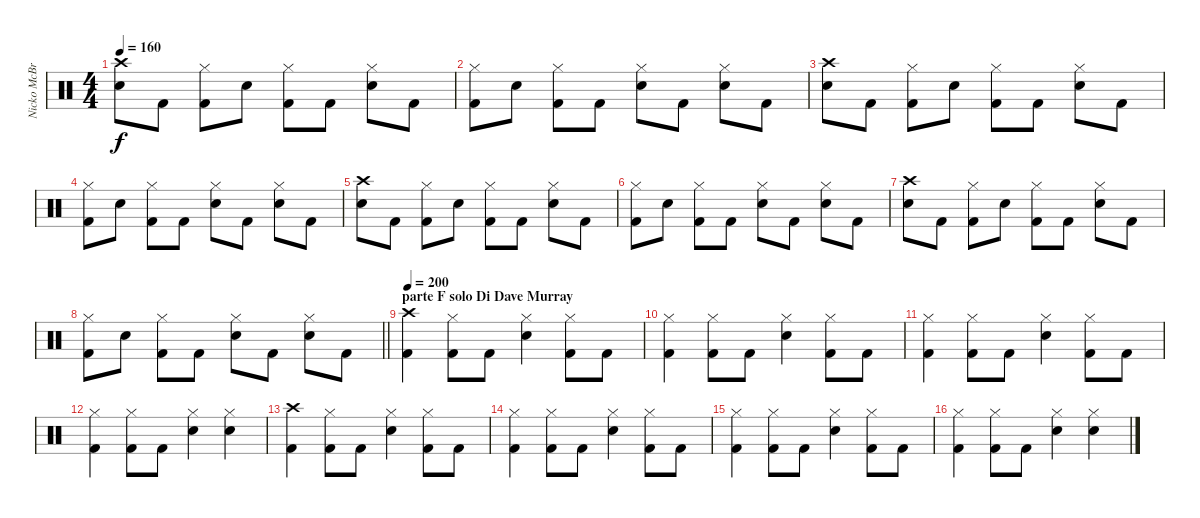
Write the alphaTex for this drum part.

\track ("Nicko McBrain" "Nicko McBr") {instrument percussion}
\staff {score}
\articulation defaults
\ts (4 4)
\tempo 160
\clef neutral
\ks c
("Crash high (hit)" "Snare (hit) 2").8{dy f} "Kick (hit) 2".8 ("Hi-Hat (closed)" "Kick (hit) 2").8 "Snare (hit) 2".8 ("Hi-Hat (closed)" "Kick (hit) 2").8 "Kick (hit) 2".8 ("Hi-Hat (closed)" "Snare (hit) 2").8 "Kick (hit) 2".8 |
("Hi-Hat (closed)" "Kick (hit) 2").8 "Snare (hit) 2".8 ("Hi-Hat (closed)" "Kick (hit) 2").8 "Kick (hit) 2".8 ("Hi-Hat (closed)" "Snare (hit) 2").8 "Kick (hit) 2".8 ("Hi-Hat (closed)" "Snare (hit) 2").8 "Kick (hit) 2".8 |
("Crash high (hit)" "Snare (hit) 2").8 "Kick (hit) 2".8 ("Hi-Hat (closed)" "Kick (hit) 2").8 "Snare (hit) 2".8 ("Hi-Hat (closed)" "Kick (hit) 2").8 "Kick (hit) 2".8 ("Hi-Hat (closed)" "Snare (hit) 2").8 "Kick (hit) 2".8 |
("Hi-Hat (closed)" "Kick (hit) 2").8 "Snare (hit) 2".8 ("Hi-Hat (closed)" "Kick (hit) 2").8 "Kick (hit) 2".8 ("Hi-Hat (closed)" "Snare (hit) 2").8 "Kick (hit) 2".8 ("Hi-Hat (closed)" "Snare (hit) 2").8 "Kick (hit) 2".8 |
("Crash high (hit)" "Snare (hit) 2").8 "Kick (hit) 2".8 ("Hi-Hat (closed)" "Kick (hit) 2").8 "Snare (hit) 2".8 ("Hi-Hat (closed)" "Kick (hit) 2").8 "Kick (hit) 2".8 ("Hi-Hat (closed)" "Snare (hit) 2").8 "Kick (hit) 2".8 |
("Hi-Hat (closed)" "Kick (hit) 2").8 "Snare (hit) 2".8 ("Hi-Hat (closed)" "Kick (hit) 2").8 "Kick (hit) 2".8 ("Hi-Hat (closed)" "Snare (hit) 2").8 "Kick (hit) 2".8 ("Hi-Hat (closed)" "Snare (hit) 2").8 "Kick (hit) 2".8 |
("Crash high (hit)" "Snare (hit) 2").8 "Kick (hit) 2".8 ("Hi-Hat (closed)" "Kick (hit) 2").8 "Snare (hit) 2".8 ("Hi-Hat (closed)" "Kick (hit) 2").8 "Kick (hit) 2".8 ("Hi-Hat (closed)" "Snare (hit) 2").8 "Kick (hit) 2".8 |
\barLineRight lightlight
("Hi-Hat (closed)" "Kick (hit) 2").8 "Snare (hit) 2".8 ("Hi-Hat (closed)" "Kick (hit) 2").8 "Kick (hit) 2".8 ("Hi-Hat (closed)" "Snare (hit) 2").8 "Kick (hit) 2".8 ("Hi-Hat (closed)" "Snare (hit) 2").8 "Kick (hit) 2".8 |
\section ("" "parte F solo Di Dave Murray")
\tempo 200
("Crash high (hit)" "Kick (hit) 2").4 ("Hi-Hat (closed)" "Kick (hit) 2").8 "Kick (hit) 2".8 ("Hi-Hat (closed)" "Snare (hit) 2").4 ("Hi-Hat (closed)" "Kick (hit) 2").8 "Kick (hit) 2".8 |
("Hi-Hat (closed)" "Kick (hit) 2").4 ("Hi-Hat (closed)" "Kick (hit) 2").8 "Kick (hit) 2".8 ("Hi-Hat (closed)" "Snare (hit) 2").4 ("Hi-Hat (closed)" "Kick (hit) 2").8 "Kick (hit) 2".8 |
("Hi-Hat (closed)" "Kick (hit) 2").4 ("Hi-Hat (closed)" "Kick (hit) 2").8 "Kick (hit) 2".8 ("Hi-Hat (closed)" "Snare (hit) 2").4 ("Hi-Hat (closed)" "Kick (hit) 2").8 "Kick (hit) 2".8 |
("Hi-Hat (closed)" "Kick (hit) 2").4 ("Hi-Hat (closed)" "Kick (hit) 2").8 "Kick (hit) 2".8 ("Hi-Hat (closed)" "Snare (hit) 2").4 ("Hi-Hat (closed)" "Snare (hit) 2").4 |
("Crash high (hit)" "Kick (hit) 2").4 ("Hi-Hat (closed)" "Kick (hit) 2").8 "Kick (hit) 2".8 ("Hi-Hat (closed)" "Snare (hit) 2").4 ("Hi-Hat (closed)" "Kick (hit) 2").8 "Kick (hit) 2".8 |
("Hi-Hat (closed)" "Kick (hit) 2").4 ("Hi-Hat (closed)" "Kick (hit) 2").8 "Kick (hit) 2".8 ("Hi-Hat (closed)" "Snare (hit) 2").4 ("Hi-Hat (closed)" "Kick (hit) 2").8 "Kick (hit) 2".8 |
("Hi-Hat (closed)" "Kick (hit) 2").4 ("Hi-Hat (closed)" "Kick (hit) 2").8 "Kick (hit) 2".8 ("Hi-Hat (closed)" "Snare (hit) 2").4 ("Hi-Hat (closed)" "Kick (hit) 2").8 "Kick (hit) 2".8 |
("Hi-Hat (closed)" "Kick (hit) 2").4 ("Hi-Hat (closed)" "Kick (hit) 2").8 "Kick (hit) 2".8 ("Hi-Hat (closed)" "Snare (hit) 2").4 ("Hi-Hat (closed)" "Snare (hit) 2").4
